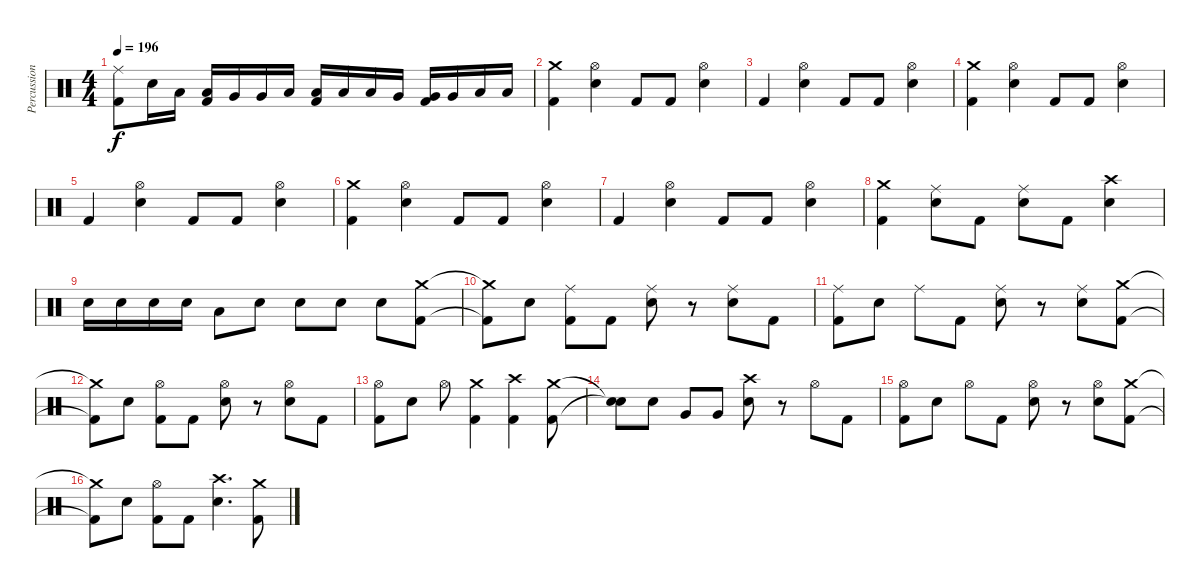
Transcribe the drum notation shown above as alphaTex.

\track ("Percussion" "Percussion") {instrument percussion}
\staff {score}
\articulation defaults
\ts (4 4)
\tempo 196
\clef neutral
\ks c
("Ride (middle)" "Kick (hit) 2").8{dy f} "Electric Snare (hit)".16 "Low Tom (hit)".16 ("Low Tom (hit)" "Kick (hit) 2").16 "Very Low Tom (hit)".16 "Very Low Tom (hit)".16 "Low Floor Tom (hit)".16 ("Low Tom (hit)" "Kick (hit) 2").16 "Low Tom (hit)".16 "Low Tom (hit)".16 "Very Low Tom (hit)".16 ("Very Low Tom (hit)" "Kick (hit) 2").16 "Very Low Tom (hit)".16 "Low Floor Tom (hit)".16 "Low Floor Tom (hit)".16 |
("Crash medium (hit)" "Kick (hit) 2").4 ("Hi-Hat (open)" "Electric Snare (hit)").4 "Kick (hit) 2".8 "Kick (hit) 2".8 ("Hi-Hat (open)" "Electric Snare (hit)").4 |
"Kick (hit) 2".4 ("Hi-Hat (open)" "Electric Snare (hit)").4 "Kick (hit) 2".8 "Kick (hit) 2".8 ("Hi-Hat (open)" "Electric Snare (hit)").4 |
("Crash medium (hit)" "Kick (hit) 2").4 ("Hi-Hat (open)" "Electric Snare (hit)").4 "Kick (hit) 2".8 "Kick (hit) 2".8 ("Hi-Hat (open)" "Electric Snare (hit)").4 |
"Kick (hit) 2".4 ("Hi-Hat (open)" "Electric Snare (hit)").4 "Kick (hit) 2".8 "Kick (hit) 2".8 ("Hi-Hat (open)" "Electric Snare (hit)").4 |
("Crash medium (hit)" "Kick (hit) 2").4 ("Hi-Hat (open)" "Electric Snare (hit)").4 "Kick (hit) 2".8 "Kick (hit) 2".8 ("Hi-Hat (open)" "Electric Snare (hit)").4 |
"Kick (hit) 2".4 ("Hi-Hat (open)" "Electric Snare (hit)").4 "Kick (hit) 2".8 "Kick (hit) 2".8 ("Hi-Hat (open)" "Electric Snare (hit)").4 |
("Crash medium (hit)" "Kick (hit) 2").4 ("Ride (middle)" "Electric Snare (hit)").8 "Kick (hit) 2".8 ("Ride (middle)" "Electric Snare (hit)").8 "Kick (hit) 2".8 ("Crash high (hit)" "Electric Snare (hit)").4 |
"Electric Snare (hit)".16 "Electric Snare (hit)".16 "Electric Snare (hit)".16 "Electric Snare (hit)".16 "Low Tom (hit)".8 "Electric Snare (hit)".8 "Electric Snare (hit)".8 "Electric Snare (hit)".8 "Electric Snare (hit)".8 ("Crash medium (hit)" "Kick (hit) 2").8 |
("Crash medium (hit)"{t} "Kick (hit) 2"{t}).8 "Electric Snare (hit)".8 ("Ride (middle)" "Kick (hit) 2").8 "Kick (hit) 2".8 ("Ride (middle)" "Electric Snare (hit)").8 r.8 ("Ride (middle)" "Electric Snare (hit)").8 "Kick (hit) 2".8 |
("Ride (middle)" "Kick (hit) 2").8 "Electric Snare (hit)".8 "Ride (middle)".8 "Kick (hit) 2".8 ("Ride (middle)" "Electric Snare (hit)").8 r.8 ("Ride (middle)" "Electric Snare (hit)").8 ("Crash medium (hit)" "Kick (hit) 2").8 |
("Crash medium (hit)"{t} "Kick (hit) 2"{t}).8 "Electric Snare (hit)".8 ("Hi-Hat (open)" "Kick (hit) 2").8 "Kick (hit) 2".8 ("Hi-Hat (open)" "Electric Snare (hit)").8 r.8 ("Hi-Hat (open)" "Electric Snare (hit)").8 "Kick (hit) 2".8 |
("Hi-Hat (open)" "Kick (hit) 2").8 "Electric Snare (hit)".8 "Hi-Hat (open)".8 ("Crash medium (hit)" "Kick (hit) 2").4 ("Crash high (hit)" "Kick (hit) 2").4 ("Crash medium (hit)" "Kick (hit) 2").8 |
("Snare (hit)"{t} "Snare (hit)"{t}).8 "Electric Snare (hit)".8 "Very Low Tom (hit)".8 "Very Low Tom (hit)".8 ("Crash high (hit)" "Electric Snare (hit)").8 r.8 "Hi-Hat (open)".8 "Kick (hit) 2".8 |
("Hi-Hat (open)" "Kick (hit) 2").8 "Electric Snare (hit)".8 "Hi-Hat (open)".8 "Kick (hit) 2".8 ("Hi-Hat (open)" "Electric Snare (hit)").8 r.8 ("Hi-Hat (open)" "Electric Snare (hit)").8 ("Crash medium (hit)" "Kick (hit) 2").8 |
("Crash medium (hit)"{t} "Kick (hit) 2"{t}).8 "Electric Snare (hit)".8 ("Hi-Hat (open)" "Kick (hit) 2").8 "Kick (hit) 2".8 ("Crash high (hit)" "Electric Snare (hit)").4{d} ("Crash medium (hit)" "Kick (hit) 2").8
